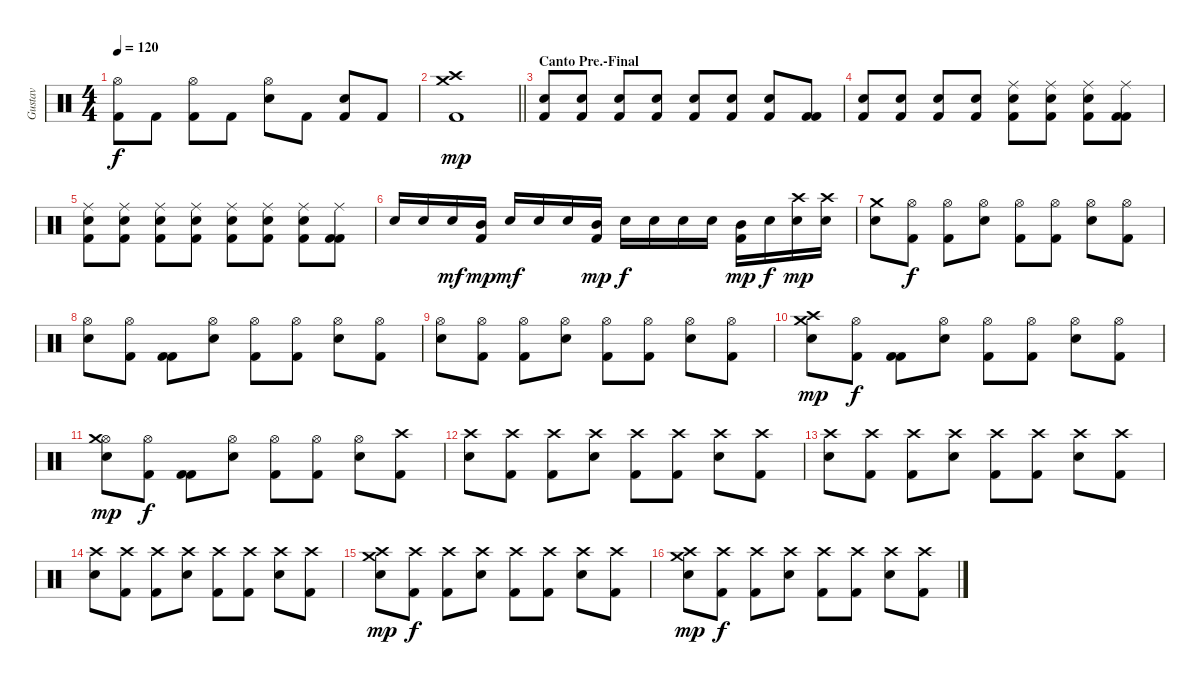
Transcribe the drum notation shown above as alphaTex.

\track ("Gustav" "Gustav") {instrument percussion}
\staff {score}
\articulation defaults
\ts (4 4)
\tempo 120
\clef neutral
\ks c
("Hi-Hat (open)" "Kick (hit) 2").8{dy f} "Kick (hit) 2".8 ("Hi-Hat (open)" "Kick (hit) 2").8 "Kick (hit) 2".8 ("Hi-Hat (open)" "Snare (hit) 2").8 "Kick (hit) 2".8 ("Kick (hit) 2" "Snare (hit) 2").8 "Kick (hit) 2".8 |
\barLineRight lightlight
("Kick (hit) 2" "Crash medium (hit)" "Crash high (hit)").1{dy mp} |
\section ("" "Canto Pre.-Final")
("Kick (hit) 2" "Electric Snare (hit)").8 ("Kick (hit) 2" "Electric Snare (hit)").8 ("Kick (hit) 2" "Electric Snare (hit)").8 ("Kick (hit) 2" "Electric Snare (hit)").8 ("Kick (hit) 2" "Electric Snare (hit)").8 ("Kick (hit) 2" "Electric Snare (hit)").8 ("Kick (hit) 2" "Electric Snare (hit)").8 ("Kick (hit) 2" "Kick (hit) 2").8 |
("Kick (hit) 2" "Electric Snare (hit)").8 ("Kick (hit) 2" "Electric Snare (hit)").8 ("Kick (hit) 2" "Electric Snare (hit)").8 ("Kick (hit) 2" "Electric Snare (hit)").8 ("Kick (hit) 2" "Ride (middle)" "Electric Snare (hit)").8 ("Kick (hit) 2" "Ride (middle)" "Electric Snare (hit)").8 ("Kick (hit) 2" "Ride (middle)" "Electric Snare (hit)").8 ("Kick (hit) 2" "Ride (middle)" "Kick (hit) 2").8 |
("Kick (hit) 2" "Ride (middle)" "Snare (hit) 2").8 ("Kick (hit) 2" "Ride (middle)" "Snare (hit) 2").8 ("Kick (hit) 2" "Ride (middle)" "Snare (hit) 2").8 ("Kick (hit) 2" "Ride (middle)" "Snare (hit) 2").8 ("Kick (hit) 2" "Ride (middle)" "Snare (hit) 2").8 ("Kick (hit) 2" "Ride (middle)" "Snare (hit) 2").8 ("Kick (hit) 2" "Ride (middle)" "Snare (hit) 2").8 ("Kick (hit) 2" "Ride (middle)" "Kick (hit) 2").8 |
"Snare (hit) 2".16 "Snare (hit) 2".16 "Snare (hit) 2".16{dy mf} ("Mid Tom (hit)" "Kick (hit) 2").16{dy mp} "Snare (hit) 2".16{dy mf} "Snare (hit) 2".16 "Snare (hit) 2".16 ("Mid Tom (hit)" "Kick (hit) 2").16{dy mp} "Snare (hit) 2".16{dy f} "Snare (hit) 2".16 "Snare (hit) 2".16 "Snare (hit) 2".16 ("Mid Tom (hit)" "Kick (hit) 2").16{dy mp} "Snare (hit) 2".16{dy f} ("Crash high (hit)" "Snare (hit) 2").16{dy mp} ("Crash high (hit)" "Snare (hit) 2").16 |
("Snare (hit) 2" "Crash medium (hit)").8 ("Kick (hit) 2" "Hi-Hat (open)").8{dy f} ("Kick (hit) 2" "Hi-Hat (open)").8 ("Snare (hit) 2" "Hi-Hat (open)").8 ("Kick (hit) 2" "Hi-Hat (open)").8 ("Kick (hit) 2" "Hi-Hat (open)").8 ("Snare (hit) 2" "Hi-Hat (open)").8 ("Hi-Hat (open)" "Kick (hit) 2").8 |
("Snare (hit) 2" "Hi-Hat (open)").8 ("Kick (hit) 2" "Hi-Hat (open)").8 ("Kick (hit) 2" "Kick (hit) 2").8 ("Snare (hit) 2" "Hi-Hat (open)").8 ("Kick (hit) 2" "Hi-Hat (open)").8 ("Kick (hit) 2" "Hi-Hat (open)").8 ("Snare (hit) 2" "Hi-Hat (open)").8 ("Hi-Hat (open)" "Kick (hit) 2").8 |
("Snare (hit) 2" "Hi-Hat (open)").8 ("Kick (hit) 2" "Hi-Hat (open)").8 ("Kick (hit) 2" "Hi-Hat (open)").8 ("Snare (hit) 2" "Hi-Hat (open)").8 ("Kick (hit) 2" "Hi-Hat (open)").8 ("Kick (hit) 2" "Hi-Hat (open)").8 ("Snare (hit) 2" "Hi-Hat (open)").8 ("Hi-Hat (open)" "Kick (hit) 2").8 |
("Snare (hit) 2" "Crash medium (hit)" "Crash high (hit)").8{dy mp} ("Kick (hit) 2" "Hi-Hat (open)").8{dy f} ("Kick (hit) 2" "Kick (hit) 2").8 ("Snare (hit) 2" "Hi-Hat (open)").8 ("Kick (hit) 2" "Hi-Hat (open)").8 ("Kick (hit) 2" "Hi-Hat (open)").8 ("Snare (hit) 2" "Hi-Hat (open)").8 ("Hi-Hat (open)" "Kick (hit) 2").8 |
("Snare (hit) 2" "Hi-Hat (open)" "Crash medium (hit)").8{dy mp} ("Kick (hit) 2" "Hi-Hat (open)").8{dy f} ("Kick (hit) 2" "Kick (hit) 2").8 ("Snare (hit) 2" "Hi-Hat (open)").8 ("Kick (hit) 2" "Hi-Hat (open)").8 ("Kick (hit) 2" "Hi-Hat (open)").8 ("Snare (hit) 2" "Hi-Hat (open)").8 ("Crash high (hit)" "Kick (hit) 2").8 |
("Snare (hit) 2" "Crash high (hit)").8 ("Kick (hit) 2" "Crash high (hit)").8 ("Crash high (hit)" "Kick (hit) 2").8 ("Snare (hit) 2" "Crash high (hit)").8 ("Kick (hit) 2" "Crash high (hit)").8 ("Kick (hit) 2" "Crash high (hit)").8 ("Snare (hit) 2" "Crash high (hit)").8 ("Crash high (hit)" "Kick (hit) 2").8 |
("Snare (hit) 2" "Crash high (hit)").8 ("Kick (hit) 2" "Crash high (hit)").8 ("Crash high (hit)" "Kick (hit) 2").8 ("Snare (hit) 2" "Crash high (hit)").8 ("Kick (hit) 2" "Crash high (hit)").8 ("Kick (hit) 2" "Crash high (hit)").8 ("Snare (hit) 2" "Crash high (hit)").8 ("Crash high (hit)" "Kick (hit) 2").8 |
("Snare (hit) 2" "Crash high (hit)").8 ("Kick (hit) 2" "Crash high (hit)").8 ("Crash high (hit)" "Kick (hit) 2").8 ("Snare (hit) 2" "Crash high (hit)").8 ("Kick (hit) 2" "Crash high (hit)").8 ("Kick (hit) 2" "Crash high (hit)").8 ("Snare (hit) 2" "Crash high (hit)").8 ("Crash high (hit)" "Kick (hit) 2").8 |
("Snare (hit) 2" "Crash high (hit)" "Crash medium (hit)").8{dy mp} ("Kick (hit) 2" "Crash high (hit)").8{dy f} ("Crash high (hit)" "Kick (hit) 2").8 ("Snare (hit) 2" "Crash high (hit)").8 ("Kick (hit) 2" "Crash high (hit)").8 ("Kick (hit) 2" "Crash high (hit)").8 ("Snare (hit) 2" "Crash high (hit)").8 ("Crash high (hit)" "Kick (hit) 2").8 |
("Snare (hit) 2" "Crash high (hit)" "Crash medium (hit)").8{dy mp} ("Kick (hit) 2" "Crash high (hit)").8{dy f} ("Crash high (hit)" "Kick (hit) 2").8 ("Snare (hit) 2" "Crash high (hit)").8 ("Kick (hit) 2" "Crash high (hit)").8 ("Kick (hit) 2" "Crash high (hit)").8 ("Snare (hit) 2" "Crash high (hit)").8 ("Crash high (hit)" "Kick (hit) 2").8
